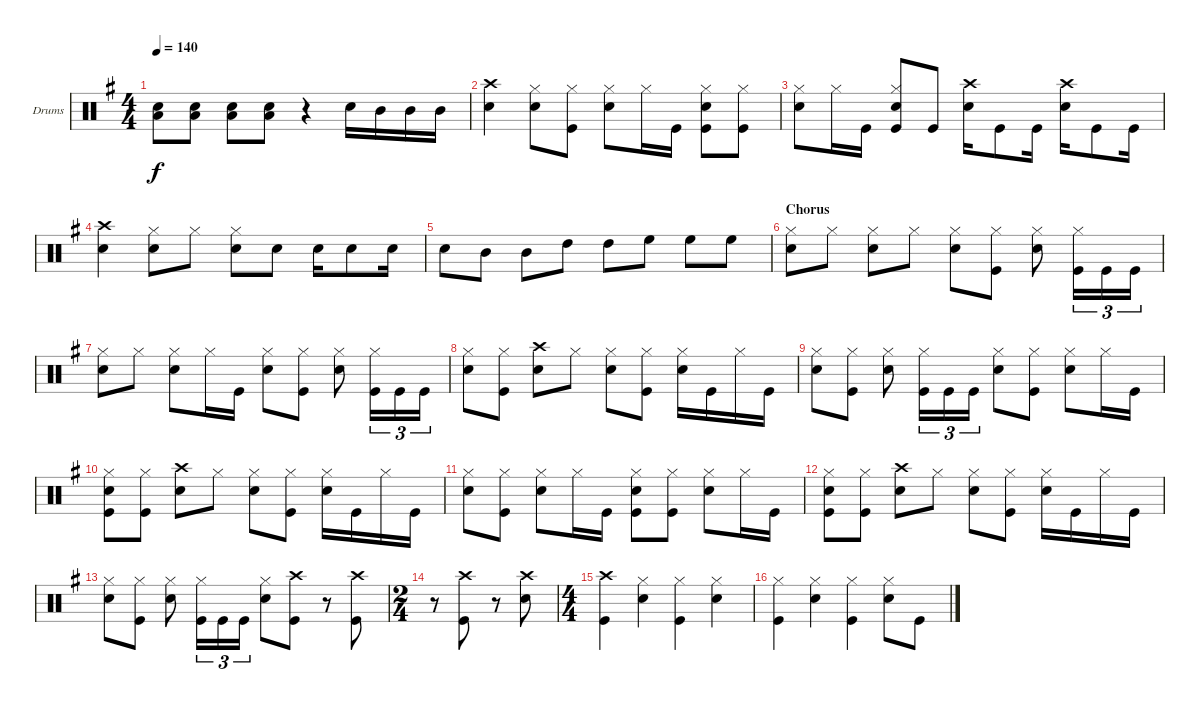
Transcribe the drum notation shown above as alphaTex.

\bracketExtendMode groupsimilarinstruments
\firstSystemTrackNameOrientation horizontal
\otherSystemsTrackNameOrientation horizontal
\track ("Drumkit" "Drums") {instrument percussion}
\staff {score}
\articulation defaults
\ts (4 4)
\tempo 140
\clef neutral
\scale
1.04288
\ks g
("Low Tom (hit)" "Snare (hit) 2").8{dy f} ("Low Tom (hit)" "Snare (hit) 2").8 ("Low Tom (hit)" "Snare (hit) 2").8 ("Low Tom (hit)" "Snare (hit) 2").8 r.4 "Snare (hit) 2".16 "Mid Tom (hit)".16 "Mid Tom (hit)".16 "Mid Tom (hit)".16 |
\scale
0.957125 ("Snare (hit) 2" "Crash high (hit)").4 ("Hi-Hat (closed)" "Snare (hit) 2").8 ("Kick (hit)" "Hi-Hat (closed)").8 ("Hi-Hat (closed)" "Snare (hit) 2").8 "Hi-Hat (closed)".16 "Kick (hit)".16 ("Kick (hit)" "Snare (hit) 2" "Hi-Hat (closed)").8 ("Hi-Hat (closed)" "Kick (hit)").8 |
\scale
1.04288 ("Hi-Hat (closed)" "Snare (hit) 2").8 "Hi-Hat (closed)".16 "Kick (hit)".16 ("Kick (hit)" "Snare (hit) 2" "Hi-Hat (closed)").8 "Kick (hit)".8 ("Snare (hit) 2" "Crash high (hit)").16 "Kick (hit)".8 "Kick (hit)".16 ("Snare (hit) 2" "Crash high (hit)").16 "Kick (hit)".8 "Kick (hit)".16 |
\scale
0.957125 ("Crash high (hit)" "Snare (hit) 2").4 ("Hi-Hat (closed)" "Snare (hit) 2").8 "Hi-Hat (closed)".8 ("Snare (hit) 2" "Hi-Hat (closed)").8 "Snare (hit) 2".8 "Snare (hit) 2".16 "Snare (hit) 2".8 "Snare (hit) 2".16 |
\scale
1.04288 "Snare (hit) 2".8 "Mid Tom (hit)".8 "Mid Tom (hit)".8 "High Tom (hit)".8 "High Tom (hit)".8 "High Floor Tom (hit)".8 "High Floor Tom (hit)".8 "High Floor Tom (hit)".8 |
\section ("" "Chorus")
\scale
0.957125 ("Hi-Hat (closed)" "Snare (hit) 2").8 "Hi-Hat (closed)".8 ("Snare (hit) 2" "Hi-Hat (closed)").8 "Hi-Hat (closed)".8 ("Snare (hit) 2" "Hi-Hat (closed)").8 ("Kick (hit)" "Hi-Hat (closed)").8 ("Snare (hit) 2" "Hi-Hat (closed)").8 ("Kick (hit)" "Hi-Hat (closed)").16{tu (3 2)} "Kick (hit)".16{tu (3 2)} "Kick (hit)".16{tu (3 2)} |
\scale
1.04288 ("Hi-Hat (closed)" "Snare (hit) 2").8 "Hi-Hat (closed)".8 ("Snare (hit) 2" "Hi-Hat (closed)").8 "Hi-Hat (closed)".16 "Kick (hit)".16 ("Snare (hit) 2" "Hi-Hat (closed)").8 ("Kick (hit)" "Hi-Hat (closed)").8 ("Snare (hit) 2" "Hi-Hat (closed)").8 ("Kick (hit)" "Hi-Hat (closed)").16{tu (3 2)} "Kick (hit)".16{tu (3 2)} "Kick (hit)".16{tu (3 2)} |
\scale
0.957125 ("Hi-Hat (closed)" "Snare (hit) 2").8 ("Kick (hit)" "Hi-Hat (closed)").8 ("Crash high (hit)" "Snare (hit) 2").8 "Hi-Hat (closed)".8 ("Snare (hit) 2" "Hi-Hat (closed)").8 ("Kick (hit)" "Hi-Hat (closed)").8 ("Snare (hit) 2" "Hi-Hat (closed)").16 "Kick (hit)".16 "Hi-Hat (closed)".16 "Kick (hit)".16 |
\scale
1.04288 ("Snare (hit) 2" "Hi-Hat (closed)").8 ("Hi-Hat (closed)" "Kick (hit)").8 ("Snare (hit) 2" "Hi-Hat (closed)").8 ("Hi-Hat (closed)" "Kick (hit)").16{tu (3 2)} "Kick (hit)".16{tu (3 2)} "Kick (hit)".16{tu (3 2)} ("Snare (hit) 2" "Hi-Hat (closed)").8 ("Kick (hit)" "Hi-Hat (closed)").8 ("Hi-Hat (closed)" "Snare (hit) 2").8 "Hi-Hat (closed)".16 "Kick (hit)".16 |
\scale
0.957125 ("Kick (hit)" "Snare (hit) 2" "Hi-Hat (closed)").8 ("Kick (hit)" "Hi-Hat (closed)").8 ("Crash high (hit)" "Snare (hit) 2").8 "Hi-Hat (closed)".8 ("Snare (hit) 2" "Hi-Hat (closed)").8 ("Kick (hit)" "Hi-Hat (closed)").8 ("Hi-Hat (closed)" "Snare (hit) 2").16 "Kick (hit)".16 "Hi-Hat (closed)".16 "Kick (hit)".16 |
\scale
1.04288 ("Hi-Hat (closed)" "Snare (hit) 2").8 ("Kick (hit)" "Hi-Hat (closed)").8 ("Snare (hit) 2" "Hi-Hat (closed)").8 "Hi-Hat (closed)".16 "Kick (hit)".16 ("Kick (hit)" "Snare (hit) 2" "Hi-Hat (closed)").8 ("Kick (hit)" "Hi-Hat (closed)").8 ("Snare (hit) 2" "Hi-Hat (closed)").8 "Hi-Hat (closed)".16 "Kick (hit)".16 |
\scale
0.957125 ("Kick (hit)" "Snare (hit) 2" "Hi-Hat (closed)").8 ("Kick (hit)" "Hi-Hat (closed)").8 ("Crash high (hit)" "Snare (hit) 2").8 "Hi-Hat (closed)".8 ("Snare (hit) 2" "Hi-Hat (closed)").8 ("Kick (hit)" "Hi-Hat (closed)").8 ("Hi-Hat (closed)" "Snare (hit) 2").16 "Kick (hit)".16 "Hi-Hat (closed)".16 "Kick (hit)".16 |
\scale
1.04288 ("Snare (hit) 2" "Hi-Hat (closed)").8 ("Hi-Hat (closed)" "Kick (hit)").8 ("Snare (hit) 2" "Hi-Hat (closed)").8 ("Hi-Hat (closed)" "Kick (hit)").16{tu (3 2)} "Kick (hit)".16{tu (3 2)} "Kick (hit)".16{tu (3 2)} ("Hi-Hat (closed)" "Snare (hit) 2").8 ("Kick (hit)" "Crash high (hit)").8 r.8 ("Crash high (hit)" "Kick (hit)").8 |
\ts (2 4)
\scale
0.957125 r.8 ("Kick (hit)" "Crash high (hit)").8 r.8 ("Snare (hit) 2" "Crash high (hit)").8 |
\ts (4 4)
\scale
1.07314 ("Kick (hit)" "Crash high (hit)").4 ("Hi-Hat (closed)" "Snare (hit) 2").4 ("Hi-Hat (closed)" "Kick (hit)").4 ("Snare (hit) 2" "Hi-Hat (closed)").4 |
\scale
0.92686 ("Hi-Hat (closed)" "Kick (hit)").4 ("Hi-Hat (closed)" "Snare (hit) 2").4 ("Hi-Hat (closed)" "Kick (hit)").4 ("Hi-Hat (closed)" "Snare (hit) 2").8 "Kick (hit)".8
